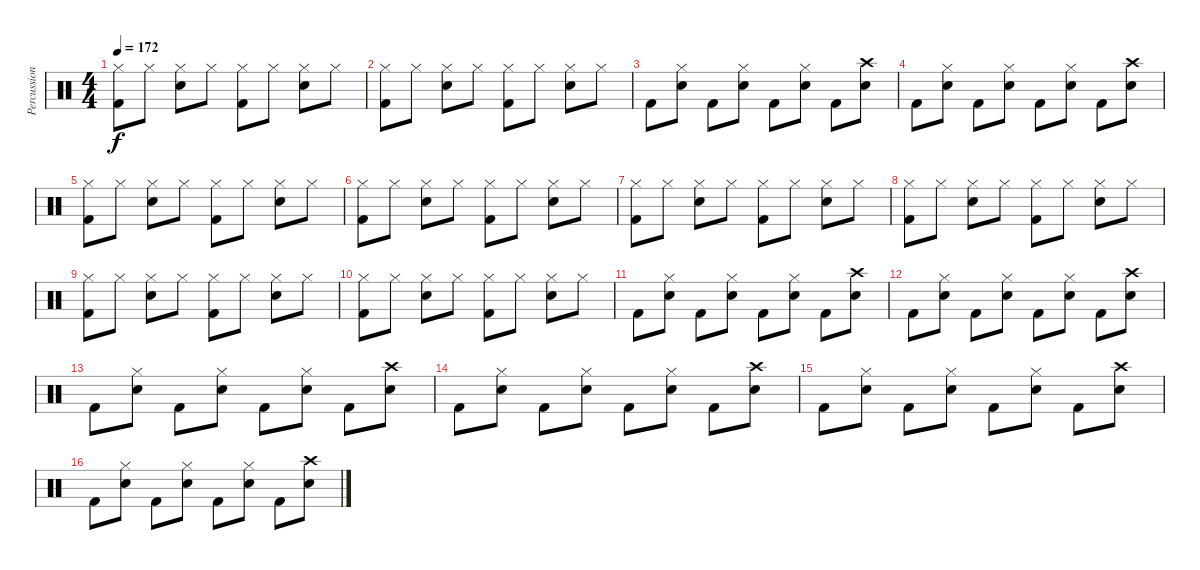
\track ("Percussion" "Percussion") {instrument percussion}
\staff {score}
\articulation defaults
\ts (4 4)
\tempo 172
\clef neutral
\ks c
("Hi-Hat (closed)" "Kick (hit) 2").8{dy f} "Hi-Hat (closed)".8 ("Hi-Hat (closed)" "Snare (hit) 2").8 "Hi-Hat (closed)".8 ("Hi-Hat (closed)" "Kick (hit) 2").8 "Hi-Hat (closed)".8 ("Hi-Hat (closed)" "Snare (hit) 2").8 "Hi-Hat (closed)".8 |
("Hi-Hat (closed)" "Kick (hit) 2").8 "Hi-Hat (closed)".8 ("Hi-Hat (closed)" "Snare (hit) 2").8 "Hi-Hat (closed)".8 ("Hi-Hat (closed)" "Kick (hit) 2").8 "Hi-Hat (closed)".8 ("Hi-Hat (closed)" "Snare (hit) 2").8 "Hi-Hat (closed)".8 |
"Kick (hit) 2".8 ("Hi-Hat (closed)" "Snare (hit) 2").8 "Kick (hit) 2".8 ("Hi-Hat (closed)" "Snare (hit) 2").8 "Kick (hit) 2".8 ("Hi-Hat (closed)" "Snare (hit) 2").8 "Kick (hit) 2".8 ("Crash high (hit)" "Snare (hit) 2").8 |
"Kick (hit) 2".8 ("Hi-Hat (closed)" "Snare (hit) 2").8 "Kick (hit) 2".8 ("Hi-Hat (closed)" "Snare (hit) 2").8 "Kick (hit) 2".8 ("Hi-Hat (closed)" "Snare (hit) 2").8 "Kick (hit) 2".8 ("Crash high (hit)" "Snare (hit) 2").8 |
("Hi-Hat (closed)" "Kick (hit) 2").8 "Hi-Hat (closed)".8 ("Hi-Hat (closed)" "Snare (hit) 2").8 "Hi-Hat (closed)".8 ("Hi-Hat (closed)" "Kick (hit) 2").8 "Hi-Hat (closed)".8 ("Hi-Hat (closed)" "Snare (hit) 2").8 "Hi-Hat (closed)".8 |
("Hi-Hat (closed)" "Kick (hit) 2").8 "Hi-Hat (closed)".8 ("Hi-Hat (closed)" "Snare (hit) 2").8 "Hi-Hat (closed)".8 ("Hi-Hat (closed)" "Kick (hit) 2").8 "Hi-Hat (closed)".8 ("Hi-Hat (closed)" "Snare (hit) 2").8 "Hi-Hat (closed)".8 |
("Hi-Hat (closed)" "Kick (hit) 2").8 "Hi-Hat (closed)".8 ("Hi-Hat (closed)" "Snare (hit) 2").8 "Hi-Hat (closed)".8 ("Hi-Hat (closed)" "Kick (hit) 2").8 "Hi-Hat (closed)".8 ("Hi-Hat (closed)" "Snare (hit) 2").8 "Hi-Hat (closed)".8 |
("Hi-Hat (closed)" "Kick (hit) 2").8 "Hi-Hat (closed)".8 ("Hi-Hat (closed)" "Snare (hit) 2").8 "Hi-Hat (closed)".8 ("Hi-Hat (closed)" "Kick (hit) 2").8 "Hi-Hat (closed)".8 ("Hi-Hat (closed)" "Snare (hit) 2").8 "Hi-Hat (closed)".8 |
("Hi-Hat (closed)" "Kick (hit) 2").8 "Hi-Hat (closed)".8 ("Hi-Hat (closed)" "Snare (hit) 2").8 "Hi-Hat (closed)".8 ("Hi-Hat (closed)" "Kick (hit) 2").8 "Hi-Hat (closed)".8 ("Hi-Hat (closed)" "Snare (hit) 2").8 "Hi-Hat (closed)".8 |
("Hi-Hat (closed)" "Kick (hit) 2").8 "Hi-Hat (closed)".8 ("Hi-Hat (closed)" "Snare (hit) 2").8 "Hi-Hat (closed)".8 ("Hi-Hat (closed)" "Kick (hit) 2").8 "Hi-Hat (closed)".8 ("Hi-Hat (closed)" "Snare (hit) 2").8 "Hi-Hat (closed)".8 |
"Kick (hit) 2".8 ("Hi-Hat (closed)" "Snare (hit) 2").8 "Kick (hit) 2".8 ("Hi-Hat (closed)" "Snare (hit) 2").8 "Kick (hit) 2".8 ("Hi-Hat (closed)" "Snare (hit) 2").8 "Kick (hit) 2".8 ("Crash high (hit)" "Snare (hit) 2").8 |
"Kick (hit) 2".8 ("Hi-Hat (closed)" "Snare (hit) 2").8 "Kick (hit) 2".8 ("Hi-Hat (closed)" "Snare (hit) 2").8 "Kick (hit) 2".8 ("Hi-Hat (closed)" "Snare (hit) 2").8 "Kick (hit) 2".8 ("Crash high (hit)" "Snare (hit) 2").8 |
"Kick (hit) 2".8 ("Hi-Hat (closed)" "Snare (hit) 2").8 "Kick (hit) 2".8 ("Hi-Hat (closed)" "Snare (hit) 2").8 "Kick (hit) 2".8 ("Hi-Hat (closed)" "Snare (hit) 2").8 "Kick (hit) 2".8 ("Crash high (hit)" "Snare (hit) 2").8 |
"Kick (hit) 2".8 ("Hi-Hat (closed)" "Snare (hit) 2").8 "Kick (hit) 2".8 ("Hi-Hat (closed)" "Snare (hit) 2").8 "Kick (hit) 2".8 ("Hi-Hat (closed)" "Snare (hit) 2").8 "Kick (hit) 2".8 ("Crash high (hit)" "Snare (hit) 2").8 |
"Kick (hit) 2".8 ("Hi-Hat (closed)" "Snare (hit) 2").8 "Kick (hit) 2".8 ("Hi-Hat (closed)" "Snare (hit) 2").8 "Kick (hit) 2".8 ("Hi-Hat (closed)" "Snare (hit) 2").8 "Kick (hit) 2".8 ("Crash high (hit)" "Snare (hit) 2").8 |
"Kick (hit) 2".8 ("Hi-Hat (closed)" "Snare (hit) 2").8 "Kick (hit) 2".8 ("Hi-Hat (closed)" "Snare (hit) 2").8 "Kick (hit) 2".8 ("Hi-Hat (closed)" "Snare (hit) 2").8 "Kick (hit) 2".8 ("Crash high (hit)" "Snare (hit) 2").8
